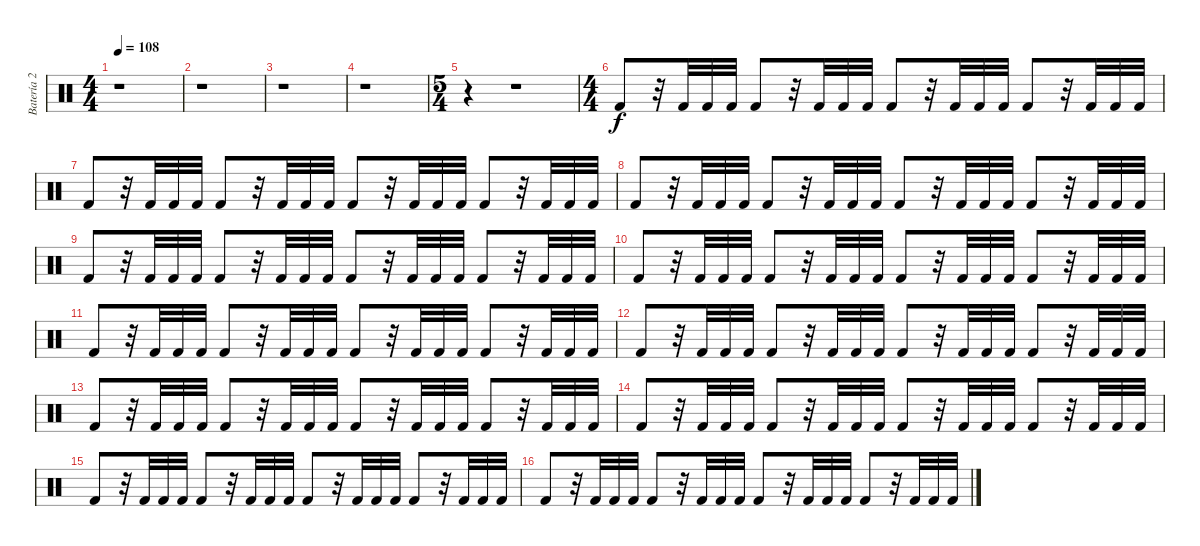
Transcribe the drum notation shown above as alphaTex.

\track ("Batería 2" "Batería 2") {instrument percussion}
\staff {score}
\articulation defaults
\ts (4 4)
\tempo 108
\clef neutral
\ks c
r.1{dy f} |
r.1 |
r.1 |
r.1 |
\ts (5 4)
r.4 r.1 |
\ts (4 4)
"Kick (hit) 2".8 r.32 "Kick (hit) 2".32 "Kick (hit) 2".32 "Kick (hit) 2".32 "Kick (hit) 2".8 r.32 "Kick (hit) 2".32 "Kick (hit) 2".32 "Kick (hit) 2".32 "Kick (hit) 2".8 r.32 "Kick (hit) 2".32 "Kick (hit) 2".32 "Kick (hit) 2".32 "Kick (hit) 2".8 r.32 "Kick (hit) 2".32 "Kick (hit) 2".32 "Kick (hit) 2".32 |
"Kick (hit) 2".8 r.32 "Kick (hit) 2".32 "Kick (hit) 2".32 "Kick (hit) 2".32 "Kick (hit) 2".8 r.32 "Kick (hit) 2".32 "Kick (hit) 2".32 "Kick (hit) 2".32 "Kick (hit) 2".8 r.32 "Kick (hit) 2".32 "Kick (hit) 2".32 "Kick (hit) 2".32 "Kick (hit) 2".8 r.32 "Kick (hit) 2".32 "Kick (hit) 2".32 "Kick (hit) 2".32 |
"Kick (hit) 2".8 r.32 "Kick (hit) 2".32 "Kick (hit) 2".32 "Kick (hit) 2".32 "Kick (hit) 2".8 r.32 "Kick (hit) 2".32 "Kick (hit) 2".32 "Kick (hit) 2".32 "Kick (hit) 2".8 r.32 "Kick (hit) 2".32 "Kick (hit) 2".32 "Kick (hit) 2".32 "Kick (hit) 2".8 r.32 "Kick (hit) 2".32 "Kick (hit) 2".32 "Kick (hit) 2".32 |
"Kick (hit) 2".8 r.32 "Kick (hit) 2".32 "Kick (hit) 2".32 "Kick (hit) 2".32 "Kick (hit) 2".8 r.32 "Kick (hit) 2".32 "Kick (hit) 2".32 "Kick (hit) 2".32 "Kick (hit) 2".8 r.32 "Kick (hit) 2".32 "Kick (hit) 2".32 "Kick (hit) 2".32 "Kick (hit) 2".8 r.32 "Kick (hit) 2".32 "Kick (hit) 2".32 "Kick (hit) 2".32 |
"Kick (hit) 2".8 r.32 "Kick (hit) 2".32 "Kick (hit) 2".32 "Kick (hit) 2".32 "Kick (hit) 2".8 r.32 "Kick (hit) 2".32 "Kick (hit) 2".32 "Kick (hit) 2".32 "Kick (hit) 2".8 r.32 "Kick (hit) 2".32 "Kick (hit) 2".32 "Kick (hit) 2".32 "Kick (hit) 2".8 r.32 "Kick (hit) 2".32 "Kick (hit) 2".32 "Kick (hit) 2".32 |
"Kick (hit) 2".8 r.32 "Kick (hit) 2".32 "Kick (hit) 2".32 "Kick (hit) 2".32 "Kick (hit) 2".8 r.32 "Kick (hit) 2".32 "Kick (hit) 2".32 "Kick (hit) 2".32 "Kick (hit) 2".8 r.32 "Kick (hit) 2".32 "Kick (hit) 2".32 "Kick (hit) 2".32 "Kick (hit) 2".8 r.32 "Kick (hit) 2".32 "Kick (hit) 2".32 "Kick (hit) 2".32 |
"Kick (hit) 2".8 r.32 "Kick (hit) 2".32 "Kick (hit) 2".32 "Kick (hit) 2".32 "Kick (hit) 2".8 r.32 "Kick (hit) 2".32 "Kick (hit) 2".32 "Kick (hit) 2".32 "Kick (hit) 2".8 r.32 "Kick (hit) 2".32 "Kick (hit) 2".32 "Kick (hit) 2".32 "Kick (hit) 2".8 r.32 "Kick (hit) 2".32 "Kick (hit) 2".32 "Kick (hit) 2".32 |
"Kick (hit) 2".8 r.32 "Kick (hit) 2".32 "Kick (hit) 2".32 "Kick (hit) 2".32 "Kick (hit) 2".8 r.32 "Kick (hit) 2".32 "Kick (hit) 2".32 "Kick (hit) 2".32 "Kick (hit) 2".8 r.32 "Kick (hit) 2".32 "Kick (hit) 2".32 "Kick (hit) 2".32 "Kick (hit) 2".8 r.32 "Kick (hit) 2".32 "Kick (hit) 2".32 "Kick (hit) 2".32 |
"Kick (hit) 2".8 r.32 "Kick (hit) 2".32 "Kick (hit) 2".32 "Kick (hit) 2".32 "Kick (hit) 2".8 r.32 "Kick (hit) 2".32 "Kick (hit) 2".32 "Kick (hit) 2".32 "Kick (hit) 2".8 r.32 "Kick (hit) 2".32 "Kick (hit) 2".32 "Kick (hit) 2".32 "Kick (hit) 2".8 r.32 "Kick (hit) 2".32 "Kick (hit) 2".32 "Kick (hit) 2".32 |
"Kick (hit) 2".8 r.32 "Kick (hit) 2".32 "Kick (hit) 2".32 "Kick (hit) 2".32 "Kick (hit) 2".8 r.32 "Kick (hit) 2".32 "Kick (hit) 2".32 "Kick (hit) 2".32 "Kick (hit) 2".8 r.32 "Kick (hit) 2".32 "Kick (hit) 2".32 "Kick (hit) 2".32 "Kick (hit) 2".8 r.32 "Kick (hit) 2".32 "Kick (hit) 2".32 "Kick (hit) 2".32 |
"Kick (hit) 2".8 r.32 "Kick (hit) 2".32 "Kick (hit) 2".32 "Kick (hit) 2".32 "Kick (hit) 2".8 r.32 "Kick (hit) 2".32 "Kick (hit) 2".32 "Kick (hit) 2".32 "Kick (hit) 2".8 r.32 "Kick (hit) 2".32 "Kick (hit) 2".32 "Kick (hit) 2".32 "Kick (hit) 2".8 r.32 "Kick (hit) 2".32 "Kick (hit) 2".32 "Kick (hit) 2".32
